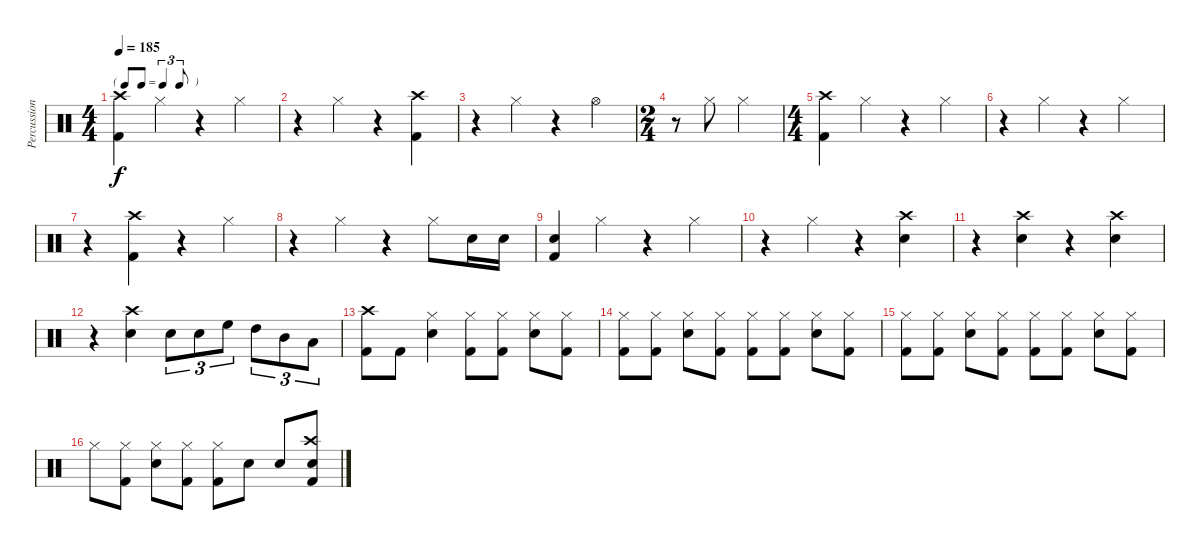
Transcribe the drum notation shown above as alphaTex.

\track ("Percussion" "Percussion") {instrument percussion}
\staff {score}
\articulation defaults
\ts (4 4)
\tf triplet8th
\tempo 185
\clef neutral
\ks c
("Kick (hit) 2" "Crash high (hit)").4{dy f} "Hi-Hat (closed)".4 r.4 "Hi-Hat (closed)".4 |
r.4 "Hi-Hat (closed)".4 r.4 ("Kick (hit) 2" "Crash high (hit)").4 |
r.4 "Hi-Hat (closed)".4 r.4 "Hi-Hat (open)".4 |
\ts (2 4)
r.8 "Hi-Hat (closed)".8 "Hi-Hat (closed)".4 |
\ts (4 4)
("Kick (hit) 2" "Crash high (hit)").4 "Hi-Hat (closed)".4 r.4 "Hi-Hat (closed)".4 |
r.4 "Hi-Hat (closed)".4 r.4 "Hi-Hat (closed)".4 |
r.4 ("Kick (hit) 2" "Crash high (hit)").4 r.4 "Hi-Hat (closed)".4 |
r.4 "Hi-Hat (closed)".4 r.4 "Hi-Hat (closed)".8 "Snare (hit) 2".16 "Snare (hit) 2".16 |
("Kick (hit) 2" "Snare (hit) 2").4 "Hi-Hat (closed)".4 r.4 "Hi-Hat (closed)".4 |
r.4 "Hi-Hat (closed)".4 r.4 ("Snare (hit) 2" "Crash high (hit)").4 |
r.4 ("Snare (hit) 2" "Crash high (hit)").4 r.4 ("Snare (hit) 2" "Crash high (hit)").4 |
r.4 ("Snare (hit) 2" "Crash high (hit)").4 "Snare (hit) 2".8{tu (3 2)} "Snare (hit) 2".8{tu (3 2)} "High Floor Tom (hit)".8{tu (3 2)} "High Tom (hit)".8{tu (3 2)} "Mid Tom (hit)".8{tu (3 2)} "Low Tom (hit)".8{tu (3 2)} |
("Kick (hit) 2" "Crash high (hit)").8 "Kick (hit) 2".8 ("Snare (hit) 2" "Hi-Hat (closed)").4 ("Kick (hit) 2" "Hi-Hat (closed)").8 ("Kick (hit) 2" "Hi-Hat (closed)").8 ("Snare (hit) 2" "Hi-Hat (closed)").8 ("Kick (hit) 2" "Hi-Hat (closed)").8 |
("Kick (hit) 2" "Hi-Hat (closed)").8 ("Kick (hit) 2" "Hi-Hat (closed)").8 ("Snare (hit) 2" "Hi-Hat (closed)").8 ("Kick (hit) 2" "Hi-Hat (closed)").8 ("Kick (hit) 2" "Hi-Hat (closed)").8 ("Kick (hit) 2" "Hi-Hat (closed)").8 ("Snare (hit) 2" "Hi-Hat (closed)").8 ("Kick (hit) 2" "Hi-Hat (closed)").8 |
("Kick (hit) 2" "Hi-Hat (closed)").8 ("Kick (hit) 2" "Hi-Hat (closed)").8 ("Snare (hit) 2" "Hi-Hat (closed)").8 ("Kick (hit) 2" "Hi-Hat (closed)").8 ("Kick (hit) 2" "Hi-Hat (closed)").8 ("Kick (hit) 2" "Hi-Hat (closed)").8 ("Snare (hit) 2" "Hi-Hat (closed)").8 ("Kick (hit) 2" "Hi-Hat (closed)").8 |
"Hi-Hat (closed)".8 ("Kick (hit) 2" "Hi-Hat (closed)").8 ("Snare (hit) 2" "Hi-Hat (closed)").8 ("Kick (hit) 2" "Hi-Hat (closed)").8 ("Kick (hit) 2" "Hi-Hat (closed)").8 "Snare (hit) 2".8 "Snare (hit) 2".8 ("Kick (hit) 2" "Snare (hit) 2" "Crash high (hit)").8
